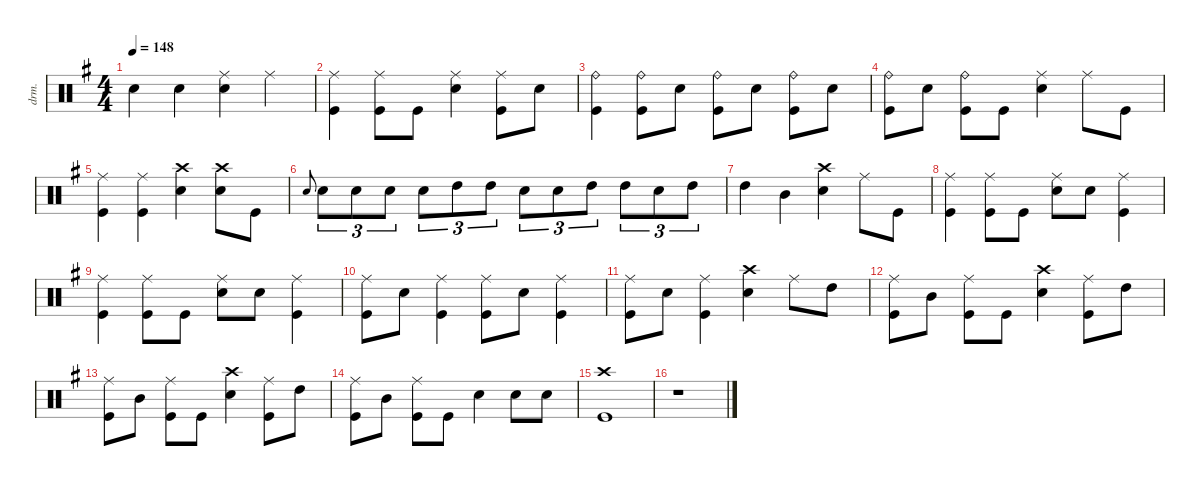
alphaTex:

\defaultSystemsLayout 4
\hideDynamics
\bracketExtendMode nobrackets
\otherSystemsTrackNameOrientation horizontal
\track ("Drums" "drm.") {multiBarRest instrument percussion}
\staff
\articulation defaults
\ts (4 4)
\tempo 148
\clef neutral
\ks eminor "Snare (hit) 2"{acc forcenatural}.4{dy mf beam Down} "Snare (hit) 2"{acc forcenatural}.4{beam Down}
("Snare (hit) 2"{acc forcenatural} "Ride (middle)"{acc forcenatural}).4{beam Down} "Ride (middle)"{acc forcenatural}.4{beam Down} |
("Ride (middle)"{acc forcenatural} "Kick (hit)"{acc forcenatural}).4{beam Down} ("Ride (middle)"{acc forcenatural} "Kick (hit)"{acc forcenatural}).8{beam Down} "Kick (hit)"{acc forcenatural}.8{beam Down} ("Snare (hit) 2"{acc forcenatural} "Ride (middle)"{acc forcenatural}).4{beam Down} ("Ride (middle)"{acc forcenatural} "Kick (hit)"{acc forcenatural}).8{beam Down} "Snare (hit) 2"{acc forcenatural}.8{beam Down} |
("Ride (bell)"{acc forcenatural} "Kick (hit)"{acc forcenatural}).4{beam Down} ("Ride (bell)"{acc forcenatural} "Kick (hit)"{acc forcenatural}).8{beam Down} "Snare (hit) 2"{acc forcenatural}.8{beam Down} ("Ride (bell)"{acc forcenatural} "Kick (hit)"{acc forcenatural}).8{beam Down} "Snare (hit) 2"{acc forcenatural}.8{beam Down} ("Ride (bell)"{acc forcenatural} "Kick (hit)"{acc forcenatural}).8{beam Down} "Snare (hit) 2"{acc forcenatural}.8{beam Down} |
("Ride (bell)"{acc forcenatural} "Kick (hit)"{acc forcenatural}).8{beam Down} "Snare (hit) 2"{acc forcenatural}.8{beam Down} ("Ride (bell)"{acc forcenatural} "Kick (hit)"{acc forcenatural}).8{beam Down} "Kick (hit)"{acc forcenatural}.8{beam Down} ("Snare (hit) 2"{acc forcenatural} "Ride (middle)"{acc forcenatural}).4{beam Down} "Ride (middle)"{acc forcenatural}.8{beam Down} "Kick (hit)"{acc forcenatural}.8{beam Down} |
("Kick (hit)"{acc forcenatural} "Ride (middle)"{acc forcenatural}).4{beam Down} ("Kick (hit)"{acc forcenatural} "Ride (middle)"{acc forcenatural}).4{beam Down} ("Crash high (hit)"{acc forcenatural} "Snare (hit) 2"{acc forcenatural}).4{beam Down} ("Crash high (hit)"{acc forcenatural} "Snare (hit) 2"{acc forcenatural}).8{beam Down} "Kick (hit)"{acc forcenatural}.8{beam Down} |
"Snare (hit) 2"{acc forcenatural}.8{gr onbeat beam Up} "Snare (hit) 2"{acc forcenatural}.8{tu (3 2) beam Down} "Snare (hit) 2"{acc forcenatural}.8{tu (3 2) beam Down} "Snare (hit) 2"{acc forcenatural}.8{tu (3 2) beam Down} "Snare (hit) 2"{acc forcenatural}.8{tu (3 2) beam Down} "High Tom (hit)"{acc forcenatural}.8{tu (3 2) dy ff beam Down} "High Tom (hit)"{acc forcenatural}.8{tu (3 2) beam Down} "Snare (hit) 2"{acc forcenatural}.8{tu (3 2) dy mf beam Down} "Snare (hit) 2"{acc forcenatural}.8{tu (3 2) beam Down} "High Tom (hit)"{acc forcenatural}.8{tu (3 2) dy ff beam Down} "High Tom (hit)"{acc forcenatural}.8{tu (3 2) beam Down} "Snare (hit) 2"{acc forcenatural}.8{tu (3 2) dy mf beam Down} "High Tom (hit)"{acc forcenatural}.8{tu (3 2) dy ff beam Down} |
"High Tom (hit)"{acc forcenatural}.4{beam Down} "Mid Tom (hit)"{acc forcenatural}.4{beam Down} ("Snare (hit) 2"{acc forcenatural} "Crash high (hit)"{acc forcenatural}).4{dy mf beam Down} "Ride (middle)"{acc forcenatural}.8{beam Down} "Kick (hit)"{acc forcenatural}.8{beam Down} |
("Ride (middle)"{acc forcenatural} "Kick (hit)"{acc forcenatural}).4{beam Down} ("Ride (middle)"{acc forcenatural} "Kick (hit)"{acc forcenatural}).8{beam Down} "Kick (hit)"{acc forcenatural}.8{beam Down} ("Snare (hit) 2"{acc forcenatural} "Ride (middle)"{acc forcenatural}).8{beam Down} "Snare (hit) 2"{acc forcenatural}.8{beam Down} ("Ride (middle)"{acc forcenatural} "Kick (hit)"{acc forcenatural}).4{beam Down} |
("Ride (middle)"{acc forcenatural} "Kick (hit)"{acc forcenatural}).4{beam Down} ("Ride (middle)"{acc forcenatural} "Kick (hit)"{acc forcenatural}).8{beam Down} "Kick (hit)"{acc forcenatural}.8{beam Down} ("Snare (hit) 2"{acc forcenatural} "Ride (middle)"{acc forcenatural}).8{beam Down} "Snare (hit) 2"{acc forcenatural}.8{beam Down} ("Ride (middle)"{acc forcenatural} "Kick (hit)"{acc forcenatural}).4{beam Down} |
("Ride (middle)"{acc forcenatural} "Kick (hit)"{acc forcenatural}).8{beam Down} "Snare (hit) 2"{acc forcenatural}.8{beam Down} ("Ride (middle)"{acc forcenatural} "Kick (hit)"{acc forcenatural}).4{beam Down} ("Ride (middle)"{acc forcenatural} "Kick (hit)"{acc forcenatural}).8{beam Down} "Snare (hit) 2"{acc forcenatural}.8{beam Down} ("Ride (middle)"{acc forcenatural} "Kick (hit)"{acc forcenatural}).4{beam Down} |
("Ride (middle)"{acc forcenatural} "Kick (hit)"{acc forcenatural}).8{beam Down} "Snare (hit) 2"{acc forcenatural}.8{beam Down} ("Ride (middle)"{acc forcenatural} "Kick (hit)"{acc forcenatural}).4{beam Down} ("Snare (hit) 2"{acc forcenatural} "Crash high (hit)"{acc forcenatural}).4{beam Down} "Ride (middle)"{acc forcenatural}.8{beam Down} "High Tom (hit)"{acc forcenatural}.8{dy ff beam Down} |
("Ride (middle)"{acc forcenatural} "Kick (hit)"{acc forcenatural}).8{dy mf beam Down} "Mid Tom (hit)"{acc forcenatural}.8{dy ff beam Down} ("Ride (middle)"{acc forcenatural} "Kick (hit)"{acc forcenatural}).8{dy mf beam Down} "Kick (hit)"{acc forcenatural}.8{beam Down} ("Snare (hit) 2"{acc forcenatural} "Crash high (hit)"{acc forcenatural}).4{beam Down} ("Ride (middle)"{acc forcenatural} "Kick (hit)"{acc forcenatural}).8{beam Down} "High Tom (hit)"{acc forcenatural}.8{dy ff beam Down} |
("Ride (middle)"{acc forcenatural} "Kick (hit)"{acc forcenatural}).8{dy mf beam Down} "Mid Tom (hit)"{acc forcenatural}.8{dy ff beam Down} ("Ride (middle)"{acc forcenatural} "Kick (hit)"{acc forcenatural}).8{dy mf beam Down} "Kick (hit)"{acc forcenatural}.8{beam Down} ("Snare (hit) 2"{acc forcenatural} "Crash high (hit)"{acc forcenatural}).4{beam Down} ("Ride (middle)"{acc forcenatural} "Kick (hit)"{acc forcenatural}).8{beam Down} "High Tom (hit)"{acc forcenatural}.8{dy ff beam Down} |
("Ride (middle)"{acc forcenatural} "Kick (hit)"{acc forcenatural}).8{dy mf beam Down} "Mid Tom (hit)"{acc forcenatural}.8{dy ff beam Down} ("Ride (middle)"{acc forcenatural} "Kick (hit)"{acc forcenatural}).8{dy mf beam Down} "Kick (hit)"{acc forcenatural}.8{beam Down} "Snare (hit) 2"{acc forcenatural}.4{beam Down} "Snare (hit) 2"{acc forcenatural}.8{beam Down} "Snare (hit) 2"{acc forcenatural}.8{dy ff beam Down} |
("Kick (hit)"{acc forcenatural} "Crash high (hit)"{acc forcenatural}).1{dy mf beam Down} |
r.1{beam Down}
